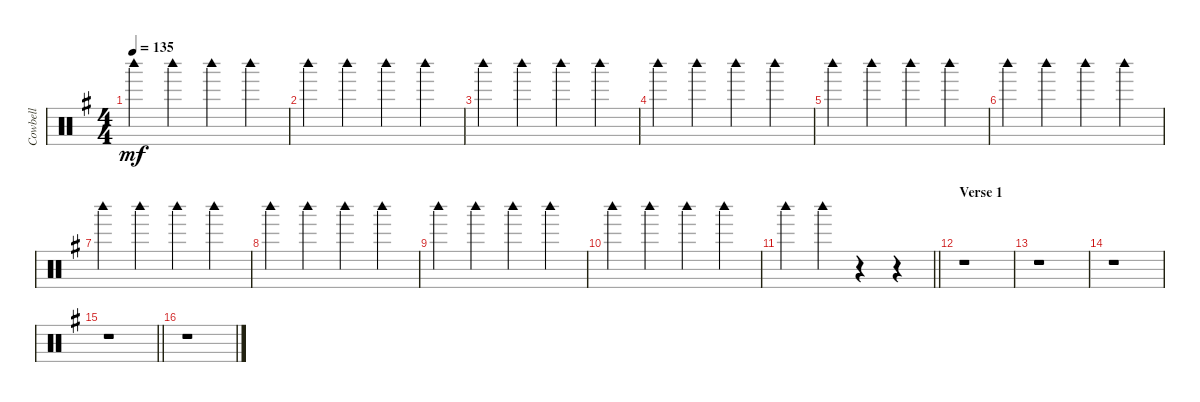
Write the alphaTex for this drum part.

\track ("Cowbell" "Cowbell") {instrument percussion}
\staff {score}
\articulation defaults
\ts (4 4)
\tempo 135
\clef neutral
\ks g "Woodblock high (hit)".4{dy mf} "Woodblock high (hit)".4 "Woodblock high (hit)".4 "Woodblock high (hit)".4
|
"Woodblock high (hit)".4 "Woodblock high (hit)".4 "Woodblock high (hit)".4 "Woodblock high (hit)".4 |
"Woodblock high (hit)".4 "Woodblock high (hit)".4 "Woodblock high (hit)".4 "Woodblock high (hit)".4 |
"Woodblock high (hit)".4 "Woodblock high (hit)".4 "Woodblock high (hit)".4 "Woodblock high (hit)".4 |
"Woodblock high (hit)".4 "Woodblock high (hit)".4 "Woodblock high (hit)".4 "Woodblock high (hit)".4 |
"Woodblock high (hit)".4 "Woodblock high (hit)".4 "Woodblock high (hit)".4 "Woodblock high (hit)".4 |
"Woodblock high (hit)".4 "Woodblock high (hit)".4 "Woodblock high (hit)".4 "Woodblock high (hit)".4 |
"Woodblock high (hit)".4 "Woodblock high (hit)".4 "Woodblock high (hit)".4 "Woodblock high (hit)".4 |
"Woodblock high (hit)".4 "Woodblock high (hit)".4 "Woodblock high (hit)".4 "Woodblock high (hit)".4 |
"Woodblock high (hit)".4 "Woodblock high (hit)".4 "Woodblock high (hit)".4 "Woodblock high (hit)".4 |
\barLineRight lightlight "Woodblock high (hit)".4 "Woodblock high (hit)".4
r.4 r.4 |
\section ("" "Verse 1")
r.1 |
r.1 |
r.1 |
\barLineRight lightlight
r.1 |
r.1
